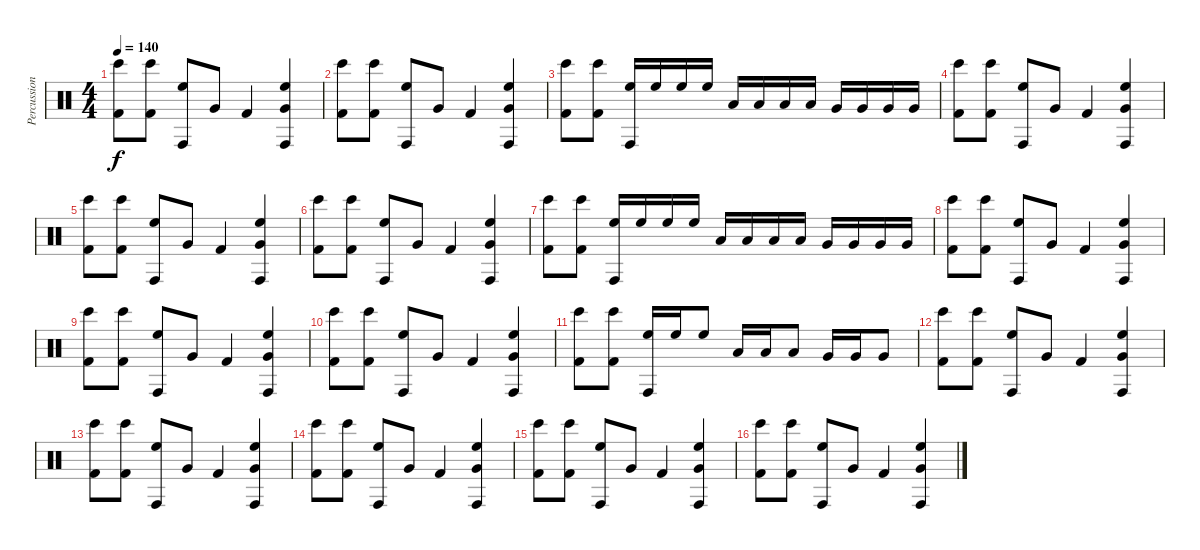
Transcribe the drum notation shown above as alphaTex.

\track ("Percussion" "Percussion") {instrument percussion}
\staff {score}
\articulation defaults
\ts (4 4)
\tempo 140
\clef neutral
\ks c
("Bongo High (hit)" "Kick (hit) 2").8{dy f} ("Bongo High (hit)" "Kick (hit) 2").8 ("Conga high (hit)" "High Floor Tom (hit)").8 "Very Low Tom (hit)".8 "Kick (hit) 2".4 ("Conga high (hit)" "High Floor Tom (hit)" "Very Low Tom (hit)").4 |
("Bongo High (hit)" "Kick (hit) 2").8 ("Bongo High (hit)" "Kick (hit) 2").8 ("Conga high (hit)" "High Floor Tom (hit)").8 "Very Low Tom (hit)".8 "Kick (hit) 2".4 ("Conga high (hit)" "High Floor Tom (hit)" "Very Low Tom (hit)").4 |
("Bongo High (hit)" "Kick (hit) 2").8 ("Bongo High (hit)" "Kick (hit) 2").8 ("Conga high (hit)" "High Floor Tom (hit)").16 "High Floor Tom (hit)".16 "High Floor Tom (hit)".16 "High Floor Tom (hit)".16 "Low Tom (hit)".16 "Low Tom (hit)".16 "Low Tom (hit)".16 "Low Tom (hit)".16 "Very Low Tom (hit)".16 "Very Low Tom (hit)".16 "Very Low Tom (hit)".16 "Very Low Tom (hit)".16 |
("Bongo High (hit)" "Kick (hit) 2").8 ("Bongo High (hit)" "Kick (hit) 2").8 ("Conga high (hit)" "High Floor Tom (hit)").8 "Very Low Tom (hit)".8 "Kick (hit) 2".4 ("Conga high (hit)" "High Floor Tom (hit)" "Very Low Tom (hit)").4 |
("Bongo High (hit)" "Kick (hit) 2").8 ("Bongo High (hit)" "Kick (hit) 2").8 ("Conga high (hit)" "High Floor Tom (hit)").8 "Very Low Tom (hit)".8 "Kick (hit) 2".4 ("Conga high (hit)" "High Floor Tom (hit)" "Very Low Tom (hit)").4 |
("Bongo High (hit)" "Kick (hit) 2").8 ("Bongo High (hit)" "Kick (hit) 2").8 ("Conga high (hit)" "High Floor Tom (hit)").8 "Very Low Tom (hit)".8 "Kick (hit) 2".4 ("Conga high (hit)" "High Floor Tom (hit)" "Very Low Tom (hit)").4 |
("Bongo High (hit)" "Kick (hit) 2").8 ("Bongo High (hit)" "Kick (hit) 2").8 ("Conga high (hit)" "High Floor Tom (hit)").16 "High Floor Tom (hit)".16 "High Floor Tom (hit)".16 "High Floor Tom (hit)".16 "Low Tom (hit)".16 "Low Tom (hit)".16 "Low Tom (hit)".16 "Low Tom (hit)".16 "Very Low Tom (hit)".16 "Very Low Tom (hit)".16 "Very Low Tom (hit)".16 "Very Low Tom (hit)".16 |
("Bongo High (hit)" "Kick (hit) 2").8 ("Bongo High (hit)" "Kick (hit) 2").8 ("Conga high (hit)" "High Floor Tom (hit)").8 "Very Low Tom (hit)".8 "Kick (hit) 2".4 ("Conga high (hit)" "High Floor Tom (hit)" "Very Low Tom (hit)").4 |
("Bongo High (hit)" "Kick (hit) 2").8 ("Bongo High (hit)" "Kick (hit) 2").8 ("Conga high (hit)" "High Floor Tom (hit)").8 "Very Low Tom (hit)".8 "Kick (hit) 2".4 ("Conga high (hit)" "High Floor Tom (hit)" "Very Low Tom (hit)").4 |
("Bongo High (hit)" "Kick (hit) 2").8 ("Bongo High (hit)" "Kick (hit) 2").8 ("Conga high (hit)" "High Floor Tom (hit)").8 "Very Low Tom (hit)".8 "Kick (hit) 2".4 ("Conga high (hit)" "High Floor Tom (hit)" "Very Low Tom (hit)").4 |
("Bongo High (hit)" "Kick (hit) 2").8 ("Bongo High (hit)" "Kick (hit) 2").8 ("Conga high (hit)" "High Floor Tom (hit)").16 "High Floor Tom (hit)".16 "High Floor Tom (hit)".8 "Low Tom (hit)".16 "Low Tom (hit)".16 "Low Tom (hit)".8 "Very Low Tom (hit)".16 "Very Low Tom (hit)".16 "Very Low Tom (hit)".8 |
("Bongo High (hit)" "Kick (hit) 2").8 ("Bongo High (hit)" "Kick (hit) 2").8 ("Conga high (hit)" "High Floor Tom (hit)").8 "Very Low Tom (hit)".8 "Kick (hit) 2".4 ("Conga high (hit)" "High Floor Tom (hit)" "Very Low Tom (hit)").4 |
("Bongo High (hit)" "Kick (hit) 2").8 ("Bongo High (hit)" "Kick (hit) 2").8 ("Conga high (hit)" "High Floor Tom (hit)").8 "Very Low Tom (hit)".8 "Kick (hit) 2".4 ("Conga high (hit)" "High Floor Tom (hit)" "Very Low Tom (hit)").4 |
("Bongo High (hit)" "Kick (hit) 2").8 ("Bongo High (hit)" "Kick (hit) 2").8 ("Conga high (hit)" "High Floor Tom (hit)").8 "Very Low Tom (hit)".8 "Kick (hit) 2".4 ("Conga high (hit)" "High Floor Tom (hit)" "Very Low Tom (hit)").4 |
("Bongo High (hit)" "Kick (hit) 2").8 ("Bongo High (hit)" "Kick (hit) 2").8 ("Conga high (hit)" "High Floor Tom (hit)").8 "Very Low Tom (hit)".8 "Kick (hit) 2".4 ("Conga high (hit)" "High Floor Tom (hit)" "Very Low Tom (hit)").4 |
("Bongo High (hit)" "Kick (hit) 2").8 ("Bongo High (hit)" "Kick (hit) 2").8 ("Conga high (hit)" "High Floor Tom (hit)").8 "Very Low Tom (hit)".8 "Kick (hit) 2".4 ("Conga high (hit)" "High Floor Tom (hit)" "Very Low Tom (hit)").4
